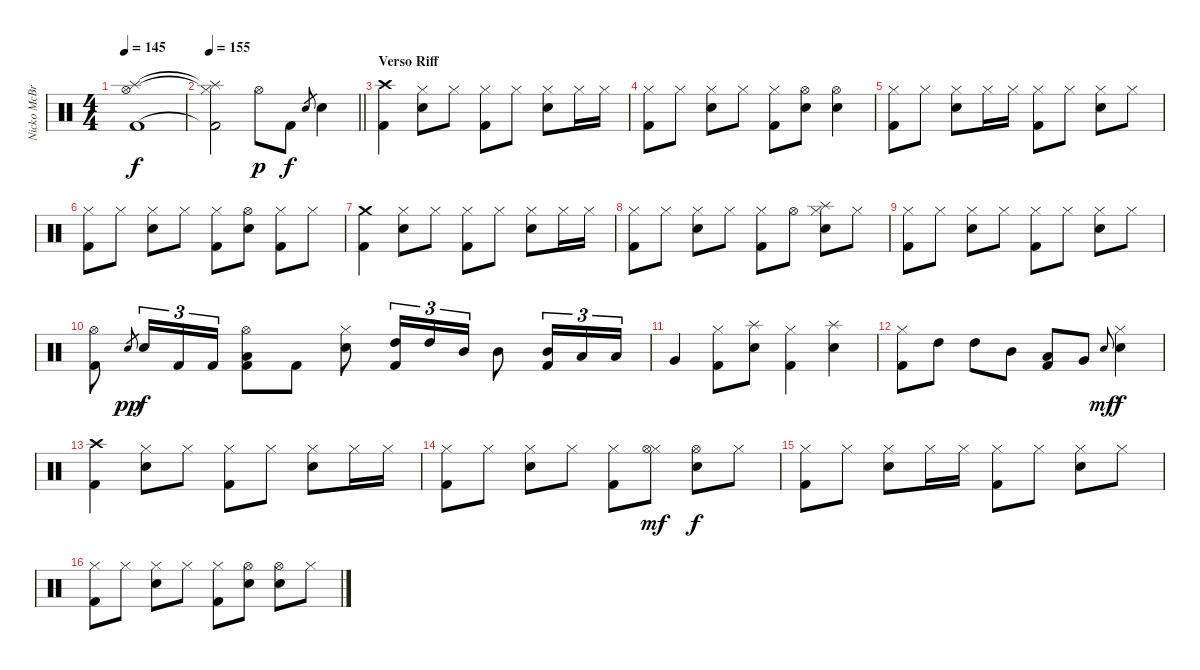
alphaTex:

\track ("Nicko McBrain" "Nicko McBr") {instrument percussion}
\staff {score}
\articulation defaults
\ts (4 4)
\tempo 145
\clef neutral
\ks c
("Hi-Hat (open)" "Splash (hit)" "Kick (hit) 2").1{dy f} |
\tempo 155
\barLineRight lightlight
("Hi-Hat (closed)"{t} "Splash (hit)"{t} "Kick (hit) 2"{t}).2 "Hi-Hat (open)".8{dy p} "Kick (hit) 2".8{dy f} "Snare (hit) 2".8{gr} "Snare (hit) 2".4 |
\section ("" "Verso Riff")
("Crash high (hit)" "Kick (hit) 2").4 ("Hi-Hat (closed)" "Snare (hit) 2").8 "Hi-Hat (closed)".8 ("Hi-Hat (closed)" "Kick (hit) 2").8 "Hi-Hat (closed)".8 ("Hi-Hat (closed)" "Snare (hit) 2").8 "Hi-Hat (closed)".16 "Hi-Hat (closed)".16 |
("Hi-Hat (closed)" "Kick (hit) 2").8 "Hi-Hat (closed)".8 ("Hi-Hat (closed)" "Snare (hit) 2").8 "Hi-Hat (closed)".8 ("Hi-Hat (closed)" "Kick (hit) 2").8 ("Hi-Hat (open)" "Snare (hit) 2").8 ("Hi-Hat (open)" "Snare (hit) 2").4 |
("Hi-Hat (closed)" "Kick (hit) 2").8 "Hi-Hat (closed)".8 ("Hi-Hat (closed)" "Snare (hit) 2").8 "Hi-Hat (closed)".16 "Hi-Hat (closed)".16 ("Hi-Hat (closed)" "Kick (hit) 2").8 "Hi-Hat (closed)".8 ("Hi-Hat (closed)" "Snare (hit) 2").8 "Hi-Hat (closed)".8 |
("Hi-Hat (closed)" "Kick (hit) 2").8 "Hi-Hat (closed)".8 ("Hi-Hat (closed)" "Snare (hit) 2").8 "Hi-Hat (closed)".8 ("Hi-Hat (closed)" "Kick (hit) 2").8 ("Hi-Hat (open)" "Snare (hit) 2").8 ("Hi-Hat (closed)" "Kick (hit) 2").8 "Hi-Hat (closed)".8 |
("Crash medium (hit)" "Kick (hit) 2").4 ("Hi-Hat (closed)" "Snare (hit) 2").8 "Hi-Hat (closed)".8 ("Hi-Hat (closed)" "Kick (hit) 2").8 "Hi-Hat (closed)".8 ("Hi-Hat (closed)" "Snare (hit) 2").8 "Hi-Hat (closed)".16 "Hi-Hat (closed)".16 |
("Hi-Hat (closed)" "Kick (hit) 2").8 "Hi-Hat (closed)".8 ("Hi-Hat (closed)" "Snare (hit) 2").8 "Hi-Hat (closed)".8 ("Hi-Hat (closed)" "Kick (hit) 2").8 "Hi-Hat (open)".8 ("Hi-Hat (closed)" "Snare (hit) 2" "Splash (hit)").8 "Hi-Hat (closed)".8 |
("Hi-Hat (closed)" "Kick (hit) 2").8 "Hi-Hat (closed)".8 ("Hi-Hat (closed)" "Snare (hit) 2").8 "Hi-Hat (closed)".8 ("Hi-Hat (closed)" "Kick (hit) 2").8 "Hi-Hat (closed)".8 ("Hi-Hat (closed)" "Snare (hit) 2").8 "Hi-Hat (closed)".8 |
("Hi-Hat (open)" "Kick (hit) 2").8 "Snare (hit) 2".8{gr dy pp} "Snare (hit) 2".16{tu (3 2) dy f} "Kick (hit) 2".16{tu (3 2)} "Kick (hit) 2".16{tu (3 2)} ("Hi-Hat (open)" "Low Tom (hit)" "Kick (hit) 2").8 "Kick (hit) 2".8 ("Hi-Hat (closed)" "Snare (hit) 2").8 ("High Tom (hit)" "Kick (hit) 2").16{tu (3 2)} "High Tom (hit)".16{tu (3 2)} "Mid Tom (hit)".16{tu (3 2)} "Mid Tom (hit)".8 ("Mid Tom (hit)" "Kick (hit) 2").16{tu (3 2)} "Low Tom (hit)".16{tu (3 2)} "Low Tom (hit)".16{tu (3 2)} |
"Very Low Tom (hit)".4 ("Hi-Hat (closed)" "Kick (hit) 2").8 ("Snare (hit) 2" "Splash (hit)").8 ("Hi-Hat (closed)" "Kick (hit) 2").4 ("Snare (hit) 2" "Splash (hit)").4 |
("Hi-Hat (closed)" "Kick (hit) 2").8 "High Tom (hit)".8 "High Tom (hit)".8 "Mid Tom (hit)".8 ("Low Tom (hit)" "Kick (hit) 2").8 "Very Low Tom (hit)".8 "Snare (hit) 2".8{gr onbeat dy mf} ("Hi-Hat (closed)" "Snare (hit) 2").4{dy f} |
("Crash high (hit)" "Kick (hit) 2").4 ("Hi-Hat (closed)" "Snare (hit) 2").8 "Hi-Hat (closed)".8 ("Hi-Hat (closed)" "Kick (hit) 2").8 "Hi-Hat (closed)".8 ("Hi-Hat (closed)" "Snare (hit) 2").8 "Hi-Hat (closed)".16 "Hi-Hat (closed)".16 |
("Hi-Hat (closed)" "Kick (hit) 2").8 "Hi-Hat (closed)".8 ("Hi-Hat (closed)" "Snare (hit) 2").8 "Hi-Hat (closed)".8 ("Hi-Hat (closed)" "Kick (hit) 2").8 ("Hi-Hat (closed)" "Hi-Hat (open)").8{dy mf} ("Hi-Hat (open)" "Snare (hit) 2").8{dy f} "Hi-Hat (closed)".8 |
("Hi-Hat (closed)" "Kick (hit) 2").8 "Hi-Hat (closed)".8 ("Hi-Hat (closed)" "Snare (hit) 2").8 "Hi-Hat (closed)".16 "Hi-Hat (closed)".16 ("Hi-Hat (closed)" "Kick (hit) 2").8 "Hi-Hat (closed)".8 ("Hi-Hat (closed)" "Snare (hit) 2").8 "Hi-Hat (closed)".8 |
("Hi-Hat (closed)" "Kick (hit) 2").8 "Hi-Hat (closed)".8 ("Hi-Hat (closed)" "Snare (hit) 2").8 "Hi-Hat (closed)".8 ("Hi-Hat (closed)" "Kick (hit) 2").8 ("Hi-Hat (open)" "Snare (hit) 2").8 ("Hi-Hat (open)" "Snare (hit) 2").8 "Hi-Hat (closed)".8
